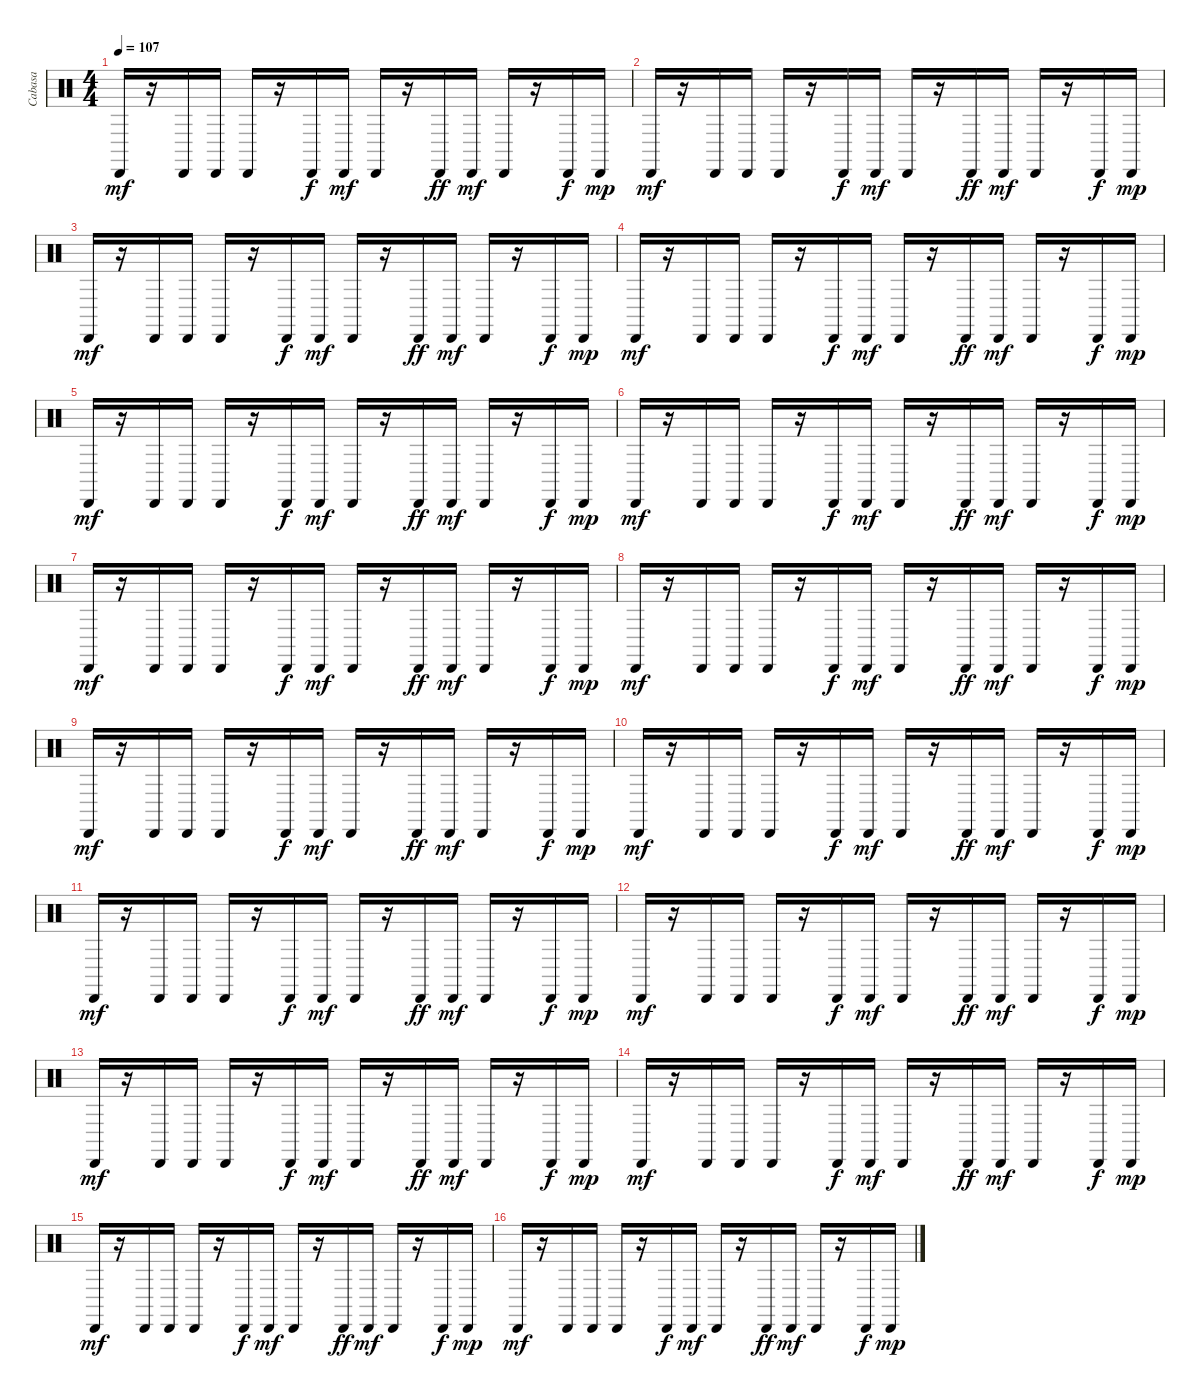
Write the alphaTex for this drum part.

\track ("Cabasa" "Cabasa") {instrument percussion}
\staff {score}
\articulation defaults
\ts (4 4)
\tempo 107
\clef neutral
\ks c "Cabasa (hit)".16{dy mf}
r.16 "Cabasa (hit)".16 "Cabasa (hit)".16 "Cabasa (hit)".16 r.16 "Cabasa (hit)".16{dy f} "Cabasa (hit)".16{dy mf} "Cabasa (hit)".16 r.16 "Cabasa (hit)".16{dy ff} "Cabasa (hit)".16{dy mf} "Cabasa (hit)".16 r.16 "Cabasa (hit)".16{dy f} "Cabasa (hit)".16{dy mp} |
"Cabasa (hit)".16{dy mf} r.16 "Cabasa (hit)".16 "Cabasa (hit)".16 "Cabasa (hit)".16 r.16 "Cabasa (hit)".16{dy f} "Cabasa (hit)".16{dy mf} "Cabasa (hit)".16 r.16 "Cabasa (hit)".16{dy ff} "Cabasa (hit)".16{dy mf} "Cabasa (hit)".16 r.16 "Cabasa (hit)".16{dy f} "Cabasa (hit)".16{dy mp} |
"Cabasa (hit)".16{dy mf} r.16 "Cabasa (hit)".16 "Cabasa (hit)".16 "Cabasa (hit)".16 r.16 "Cabasa (hit)".16{dy f} "Cabasa (hit)".16{dy mf} "Cabasa (hit)".16 r.16 "Cabasa (hit)".16{dy ff} "Cabasa (hit)".16{dy mf} "Cabasa (hit)".16 r.16 "Cabasa (hit)".16{dy f} "Cabasa (hit)".16{dy mp} |
"Cabasa (hit)".16{dy mf} r.16 "Cabasa (hit)".16 "Cabasa (hit)".16 "Cabasa (hit)".16 r.16 "Cabasa (hit)".16{dy f} "Cabasa (hit)".16{dy mf} "Cabasa (hit)".16 r.16 "Cabasa (hit)".16{dy ff} "Cabasa (hit)".16{dy mf} "Cabasa (hit)".16 r.16 "Cabasa (hit)".16{dy f} "Cabasa (hit)".16{dy mp} |
"Cabasa (hit)".16{dy mf} r.16 "Cabasa (hit)".16 "Cabasa (hit)".16 "Cabasa (hit)".16 r.16 "Cabasa (hit)".16{dy f} "Cabasa (hit)".16{dy mf} "Cabasa (hit)".16 r.16 "Cabasa (hit)".16{dy ff} "Cabasa (hit)".16{dy mf} "Cabasa (hit)".16 r.16 "Cabasa (hit)".16{dy f} "Cabasa (hit)".16{dy mp} |
"Cabasa (hit)".16{dy mf} r.16 "Cabasa (hit)".16 "Cabasa (hit)".16 "Cabasa (hit)".16 r.16 "Cabasa (hit)".16{dy f} "Cabasa (hit)".16{dy mf} "Cabasa (hit)".16 r.16 "Cabasa (hit)".16{dy ff} "Cabasa (hit)".16{dy mf} "Cabasa (hit)".16 r.16 "Cabasa (hit)".16{dy f} "Cabasa (hit)".16{dy mp} |
"Cabasa (hit)".16{dy mf} r.16 "Cabasa (hit)".16 "Cabasa (hit)".16 "Cabasa (hit)".16 r.16 "Cabasa (hit)".16{dy f} "Cabasa (hit)".16{dy mf} "Cabasa (hit)".16 r.16 "Cabasa (hit)".16{dy ff} "Cabasa (hit)".16{dy mf} "Cabasa (hit)".16 r.16 "Cabasa (hit)".16{dy f} "Cabasa (hit)".16{dy mp} |
"Cabasa (hit)".16{dy mf} r.16 "Cabasa (hit)".16 "Cabasa (hit)".16 "Cabasa (hit)".16 r.16 "Cabasa (hit)".16{dy f} "Cabasa (hit)".16{dy mf} "Cabasa (hit)".16 r.16 "Cabasa (hit)".16{dy ff} "Cabasa (hit)".16{dy mf} "Cabasa (hit)".16 r.16 "Cabasa (hit)".16{dy f} "Cabasa (hit)".16{dy mp} |
"Cabasa (hit)".16{dy mf} r.16 "Cabasa (hit)".16 "Cabasa (hit)".16 "Cabasa (hit)".16 r.16 "Cabasa (hit)".16{dy f} "Cabasa (hit)".16{dy mf} "Cabasa (hit)".16 r.16 "Cabasa (hit)".16{dy ff} "Cabasa (hit)".16{dy mf} "Cabasa (hit)".16 r.16 "Cabasa (hit)".16{dy f} "Cabasa (hit)".16{dy mp} |
"Cabasa (hit)".16{dy mf} r.16 "Cabasa (hit)".16 "Cabasa (hit)".16 "Cabasa (hit)".16 r.16 "Cabasa (hit)".16{dy f} "Cabasa (hit)".16{dy mf} "Cabasa (hit)".16 r.16 "Cabasa (hit)".16{dy ff} "Cabasa (hit)".16{dy mf} "Cabasa (hit)".16 r.16 "Cabasa (hit)".16{dy f} "Cabasa (hit)".16{dy mp} |
"Cabasa (hit)".16{dy mf} r.16 "Cabasa (hit)".16 "Cabasa (hit)".16 "Cabasa (hit)".16 r.16 "Cabasa (hit)".16{dy f} "Cabasa (hit)".16{dy mf} "Cabasa (hit)".16 r.16 "Cabasa (hit)".16{dy ff} "Cabasa (hit)".16{dy mf} "Cabasa (hit)".16 r.16 "Cabasa (hit)".16{dy f} "Cabasa (hit)".16{dy mp} |
"Cabasa (hit)".16{dy mf} r.16 "Cabasa (hit)".16 "Cabasa (hit)".16 "Cabasa (hit)".16 r.16 "Cabasa (hit)".16{dy f} "Cabasa (hit)".16{dy mf} "Cabasa (hit)".16 r.16 "Cabasa (hit)".16{dy ff} "Cabasa (hit)".16{dy mf} "Cabasa (hit)".16 r.16 "Cabasa (hit)".16{dy f} "Cabasa (hit)".16{dy mp} |
"Cabasa (hit)".16{dy mf} r.16 "Cabasa (hit)".16 "Cabasa (hit)".16 "Cabasa (hit)".16 r.16 "Cabasa (hit)".16{dy f} "Cabasa (hit)".16{dy mf} "Cabasa (hit)".16 r.16 "Cabasa (hit)".16{dy ff} "Cabasa (hit)".16{dy mf} "Cabasa (hit)".16 r.16 "Cabasa (hit)".16{dy f} "Cabasa (hit)".16{dy mp} |
"Cabasa (hit)".16{dy mf} r.16 "Cabasa (hit)".16 "Cabasa (hit)".16 "Cabasa (hit)".16 r.16 "Cabasa (hit)".16{dy f} "Cabasa (hit)".16{dy mf} "Cabasa (hit)".16 r.16 "Cabasa (hit)".16{dy ff} "Cabasa (hit)".16{dy mf} "Cabasa (hit)".16 r.16 "Cabasa (hit)".16{dy f} "Cabasa (hit)".16{dy mp} |
"Cabasa (hit)".16{dy mf} r.16 "Cabasa (hit)".16 "Cabasa (hit)".16 "Cabasa (hit)".16 r.16 "Cabasa (hit)".16{dy f} "Cabasa (hit)".16{dy mf} "Cabasa (hit)".16 r.16 "Cabasa (hit)".16{dy ff} "Cabasa (hit)".16{dy mf} "Cabasa (hit)".16 r.16 "Cabasa (hit)".16{dy f} "Cabasa (hit)".16{dy mp} |
"Cabasa (hit)".16{dy mf} r.16 "Cabasa (hit)".16 "Cabasa (hit)".16 "Cabasa (hit)".16 r.16 "Cabasa (hit)".16{dy f} "Cabasa (hit)".16{dy mf} "Cabasa (hit)".16 r.16 "Cabasa (hit)".16{dy ff} "Cabasa (hit)".16{dy mf} "Cabasa (hit)".16 r.16 "Cabasa (hit)".16{dy f} "Cabasa (hit)".16{dy mp}
